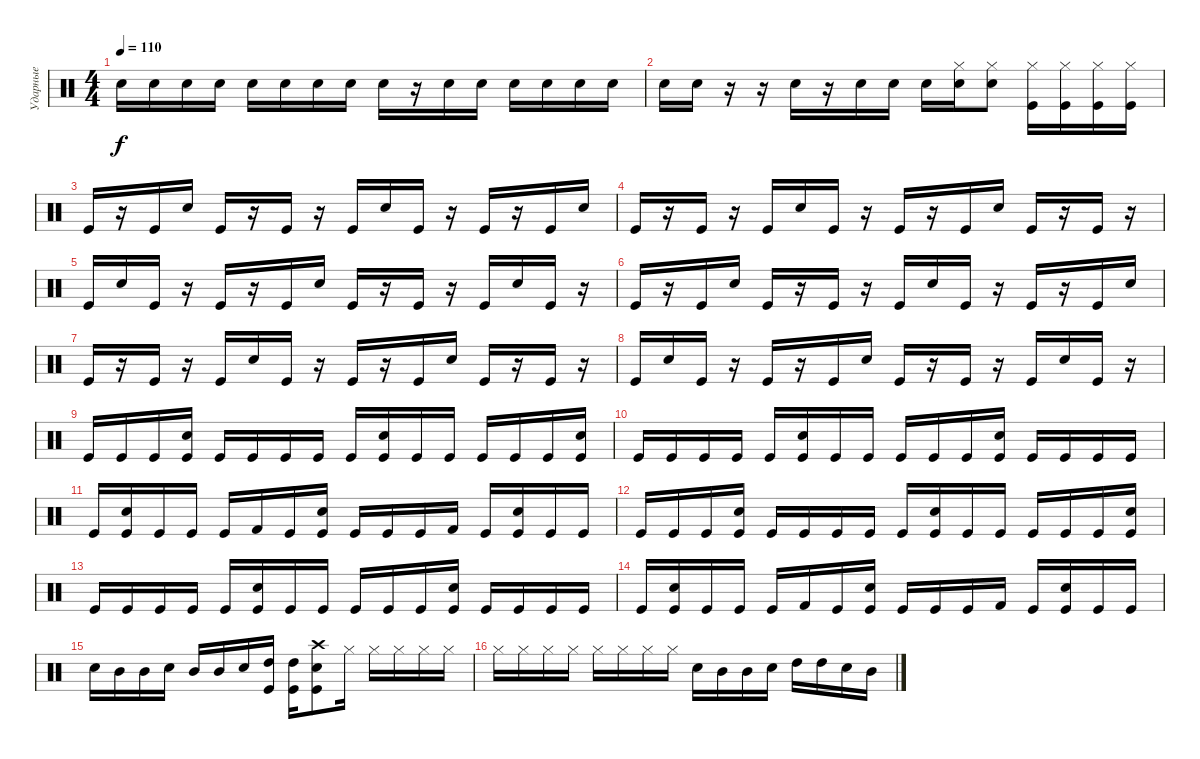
\track ("Ударные" "Ударные") {instrument percussion}
\staff {score}
\articulation defaults
\ts (4 4)
\tempo 110
\clef neutral
\ks c "Electric Snare (hit)".16{dy f} "Electric Snare (hit)".16 "Electric Snare (hit)".16 "Electric Snare (hit)".16 "Electric Snare (hit)".16 "Electric Snare (hit)".16 "Electric Snare (hit)".16 "Electric Snare (hit)".16 "Electric Snare (hit)".16
r.16 "Electric Snare (hit)".16 "Electric Snare (hit)".16 "Electric Snare (hit)".16 "Electric Snare (hit)".16 "Electric Snare (hit)".16 "Electric Snare (hit)".16 |
"Electric Snare (hit)".16 "Electric Snare (hit)".16 r.16 r.16 "Electric Snare (hit)".16 r.16 "Electric Snare (hit)".16 "Electric Snare (hit)".16 "Electric Snare (hit)".16 ("Hi-Hat (closed)" "Electric Snare (hit)").16 ("Hi-Hat (closed)" "Electric Snare (hit)").8 ("Hi-Hat (closed)" "Kick (hit)").16 ("Hi-Hat (closed)" "Kick (hit)").16 ("Hi-Hat (closed)" "Kick (hit)").16 ("Hi-Hat (closed)" "Kick (hit)").16 |
"Kick (hit)".16 r.16 "Kick (hit)".16 "Electric Snare (hit)".16 "Kick (hit)".16 r.16 "Kick (hit)".16 r.16 "Kick (hit)".16 "Electric Snare (hit)".16 "Kick (hit)".16 r.16 "Kick (hit)".16 r.16 "Kick (hit)".16 "Electric Snare (hit)".16 |
"Kick (hit)".16 r.16 "Kick (hit)".16 r.16 "Kick (hit)".16 "Electric Snare (hit)".16 "Kick (hit)".16 r.16 "Kick (hit)".16 r.16 "Kick (hit)".16 "Electric Snare (hit)".16 "Kick (hit)".16 r.16 "Kick (hit)".16 r.16 |
"Kick (hit)".16 "Electric Snare (hit)".16 "Kick (hit)".16 r.16 "Kick (hit)".16 r.16 "Kick (hit)".16 "Electric Snare (hit)".16 "Kick (hit)".16 r.16 "Kick (hit)".16 r.16 "Kick (hit)".16 "Electric Snare (hit)".16 "Kick (hit)".16 r.16 |
"Kick (hit)".16 r.16 "Kick (hit)".16 "Electric Snare (hit)".16 "Kick (hit)".16 r.16 "Kick (hit)".16 r.16 "Kick (hit)".16 "Electric Snare (hit)".16 "Kick (hit)".16 r.16 "Kick (hit)".16 r.16 "Kick (hit)".16 "Electric Snare (hit)".16 |
"Kick (hit)".16 r.16 "Kick (hit)".16 r.16 "Kick (hit)".16 "Electric Snare (hit)".16 "Kick (hit)".16 r.16 "Kick (hit)".16 r.16 "Kick (hit)".16 "Electric Snare (hit)".16 "Kick (hit)".16 r.16 "Kick (hit)".16 r.16 |
"Kick (hit)".16 "Electric Snare (hit)".16 "Kick (hit)".16 r.16 "Kick (hit)".16 r.16 "Kick (hit)".16 "Electric Snare (hit)".16 "Kick (hit)".16 r.16 "Kick (hit)".16 r.16 "Kick (hit)".16 "Electric Snare (hit)".16 "Kick (hit)".16 r.16 |
"Kick (hit)".16 "Kick (hit)".16 "Kick (hit)".16 ("Electric Snare (hit)" "Kick (hit)").16 "Kick (hit)".16 "Kick (hit)".16 "Kick (hit)".16 "Kick (hit)".16 "Kick (hit)".16 ("Electric Snare (hit)" "Kick (hit)").16 "Kick (hit)".16 "Kick (hit)".16 "Kick (hit)".16 "Kick (hit)".16 "Kick (hit)".16 ("Electric Snare (hit)" "Kick (hit)").16 |
"Kick (hit)".16 "Kick (hit)".16 "Kick (hit)".16 "Kick (hit)".16 "Kick (hit)".16 ("Electric Snare (hit)" "Kick (hit)").16 "Kick (hit)".16 "Kick (hit)".16 "Kick (hit)".16 "Kick (hit)".16 "Kick (hit)".16 ("Electric Snare (hit)" "Kick (hit)").16 "Kick (hit)".16 "Kick (hit)".16 "Kick (hit)".16 "Kick (hit)".16 |
"Kick (hit)".16 ("Electric Snare (hit)" "Kick (hit)").16 "Kick (hit)".16 "Kick (hit)".16 "Kick (hit)".16 "Kick (hit) 2".16 "Kick (hit)".16 ("Electric Snare (hit)" "Kick (hit)").16 "Kick (hit)".16 "Kick (hit)".16 "Kick (hit)".16 "Kick (hit) 2".16 "Kick (hit)".16 ("Electric Snare (hit)" "Kick (hit)").16 "Kick (hit)".16 "Kick (hit)".16 |
"Kick (hit)".16 "Kick (hit)".16 "Kick (hit)".16 ("Electric Snare (hit)" "Kick (hit)").16 "Kick (hit)".16 "Kick (hit)".16 "Kick (hit)".16 "Kick (hit)".16 "Kick (hit)".16 ("Electric Snare (hit)" "Kick (hit)").16 "Kick (hit)".16 "Kick (hit)".16 "Kick (hit)".16 "Kick (hit)".16 "Kick (hit)".16 ("Electric Snare (hit)" "Kick (hit)").16 |
"Kick (hit)".16 "Kick (hit)".16 "Kick (hit)".16 "Kick (hit)".16 "Kick (hit)".16 ("Electric Snare (hit)" "Kick (hit)").16 "Kick (hit)".16 "Kick (hit)".16 "Kick (hit)".16 "Kick (hit)".16 "Kick (hit)".16 ("Electric Snare (hit)" "Kick (hit)").16 "Kick (hit)".16 "Kick (hit)".16 "Kick (hit)".16 "Kick (hit)".16 |
"Kick (hit)".16 ("Electric Snare (hit)" "Kick (hit)").16 "Kick (hit)".16 "Kick (hit)".16 "Kick (hit)".16 "Kick (hit) 2".16 "Kick (hit)".16 ("Electric Snare (hit)" "Kick (hit)").16 "Kick (hit)".16 "Kick (hit)".16 "Kick (hit)".16 "Kick (hit) 2".16 "Kick (hit)".16 ("Electric Snare (hit)" "Kick (hit)").16 "Kick (hit)".16 "Kick (hit)".16 |
"Electric Snare (hit)".16 "Mid Tom (hit)".16 "Mid Tom (hit)".16 "Electric Snare (hit)".16 "Mid Tom (hit)".16 "Mid Tom (hit)".16 "Electric Snare (hit)".16 ("High Tom (hit)" "Kick (hit)").16 ("High Tom (hit)" "Kick (hit)").16 ("Crash high (hit)" "Electric Snare (hit)" "Kick (hit)").8 "Hi-Hat (closed)".16 "Hi-Hat (closed)".16 "Hi-Hat (closed)".16 "Hi-Hat (closed)".16 "Hi-Hat (closed)".16 |
"Hi-Hat (closed)".16 "Hi-Hat (closed)".16 "Hi-Hat (closed)".16 "Hi-Hat (closed)".16 "Hi-Hat (closed)".16 "Hi-Hat (closed)".16 "Hi-Hat (closed)".16 "Hi-Hat (closed)".16 "Electric Snare (hit)".16 "Mid Tom (hit)".16 "Mid Tom (hit)".16 "Electric Snare (hit)".16 "High Tom (hit)".16 "High Tom (hit)".16 "Electric Snare (hit)".16 "Mid Tom (hit)".16
